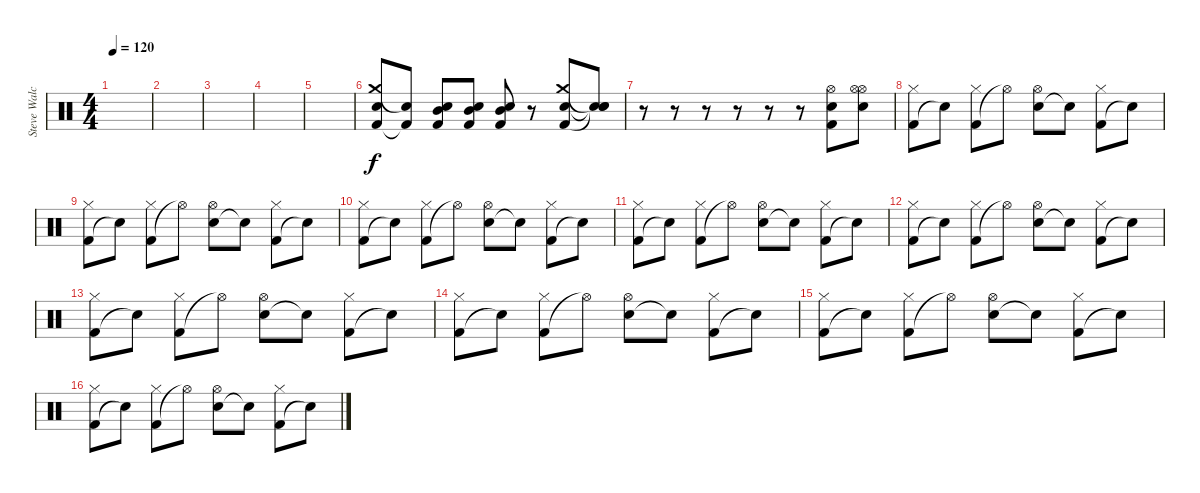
\track ("Steve Walchoz" "Steve Walc") {instrument percussion}
\staff {score}
\articulation defaults
\ts (4 4)
\tempo 120
\clef neutral
\ks c
|
|
|
|
|
("Kick (hit) 2" "Crash medium (hit)" "Electric Snare (hit)").8 ("Kick (hit) 2"{t} "Snare (hit)"{t}).8 ("Mid Tom (hit)" "Kick (hit) 2" "Electric Snare (hit)").8 ("Mid Tom (hit)" "Kick (hit) 2" "Electric Snare (hit)").8 ("Mid Tom (hit)" "Kick (hit) 2" "Electric Snare (hit)").8 r.8 ("Electric Snare (hit)" "Crash medium (hit)" "Kick (hit) 2").8 ("Snare (hit)"{t} "Snare (hit)"{t} "Snare (hit)"{t}).8 |
r.8 r.8 r.8 r.8 r.8 r.8 ("Electric Snare (hit)" "Hi-Hat (open)" "Kick (hit) 2").8 ("Snare (hit) 2" "Hi-Hat (open)" "Hi-Hat (open)").8 |
("Kick (hit) 2" "Hi-Hat (closed)").8 "Snare (hit)"{t}.8 ("Kick (hit) 2" "Hi-Hat (closed)").8 "Hi-Hat (open)"{t}.8 ("Electric Snare (hit)" "Hi-Hat (open)").8 "Snare (hit)"{t}.8 ("Kick (hit) 2" "Hi-Hat (closed)").8 "Snare (hit)"{t}.8 |
("Kick (hit) 2" "Hi-Hat (closed)").8 "Snare (hit)"{t}.8 ("Kick (hit) 2" "Hi-Hat (closed)").8 "Hi-Hat (open)"{t}.8 ("Electric Snare (hit)" "Hi-Hat (open)").8 "Snare (hit)"{t}.8 ("Kick (hit) 2" "Hi-Hat (closed)").8 "Snare (hit)"{t}.8 |
("Kick (hit) 2" "Hi-Hat (closed)").8 "Snare (hit)"{t}.8 ("Kick (hit) 2" "Hi-Hat (closed)").8 "Hi-Hat (open)"{t}.8 ("Electric Snare (hit)" "Hi-Hat (open)").8 "Snare (hit)"{t}.8 ("Kick (hit) 2" "Hi-Hat (closed)").8 "Snare (hit)"{t}.8 |
("Kick (hit) 2" "Hi-Hat (closed)").8 "Snare (hit)"{t}.8 ("Kick (hit) 2" "Hi-Hat (closed)").8 "Hi-Hat (open)"{t}.8 ("Electric Snare (hit)" "Hi-Hat (open)").8 "Snare (hit)"{t}.8 ("Kick (hit) 2" "Hi-Hat (closed)").8 "Snare (hit)"{t}.8 |
("Kick (hit) 2" "Hi-Hat (closed)").8 "Snare (hit)"{t}.8 ("Kick (hit) 2" "Hi-Hat (closed)").8 "Hi-Hat (open)"{t}.8 ("Electric Snare (hit)" "Hi-Hat (open)").8 "Snare (hit)"{t}.8 ("Kick (hit) 2" "Hi-Hat (closed)").8 "Snare (hit)"{t}.8 |
("Kick (hit) 2" "Hi-Hat (closed)").8 "Snare (hit)"{t}.8 ("Kick (hit) 2" "Hi-Hat (closed)").8 "Hi-Hat (open)"{t}.8 ("Electric Snare (hit)" "Hi-Hat (open)").8 "Snare (hit)"{t}.8 ("Kick (hit) 2" "Hi-Hat (closed)").8 "Snare (hit)"{t}.8 |
("Kick (hit) 2" "Hi-Hat (closed)").8 "Snare (hit)"{t}.8 ("Kick (hit) 2" "Hi-Hat (closed)").8 "Hi-Hat (open)"{t}.8 ("Electric Snare (hit)" "Hi-Hat (open)").8 "Snare (hit)"{t}.8 ("Kick (hit) 2" "Hi-Hat (closed)").8 "Snare (hit)"{t}.8 |
("Kick (hit) 2" "Hi-Hat (closed)").8 "Snare (hit)"{t}.8 ("Kick (hit) 2" "Hi-Hat (closed)").8 "Hi-Hat (open)"{t}.8 ("Electric Snare (hit)" "Hi-Hat (open)").8 "Snare (hit)"{t}.8 ("Kick (hit) 2" "Hi-Hat (closed)").8 "Snare (hit)"{t}.8 |
("Kick (hit) 2" "Hi-Hat (closed)").8 "Snare (hit)"{t}.8 ("Kick (hit) 2" "Hi-Hat (closed)").8 "Hi-Hat (open)"{t}.8 ("Electric Snare (hit)" "Hi-Hat (open)").8 "Snare (hit)"{t}.8 ("Kick (hit) 2" "Hi-Hat (closed)").8 "Snare (hit)"{t}.8
